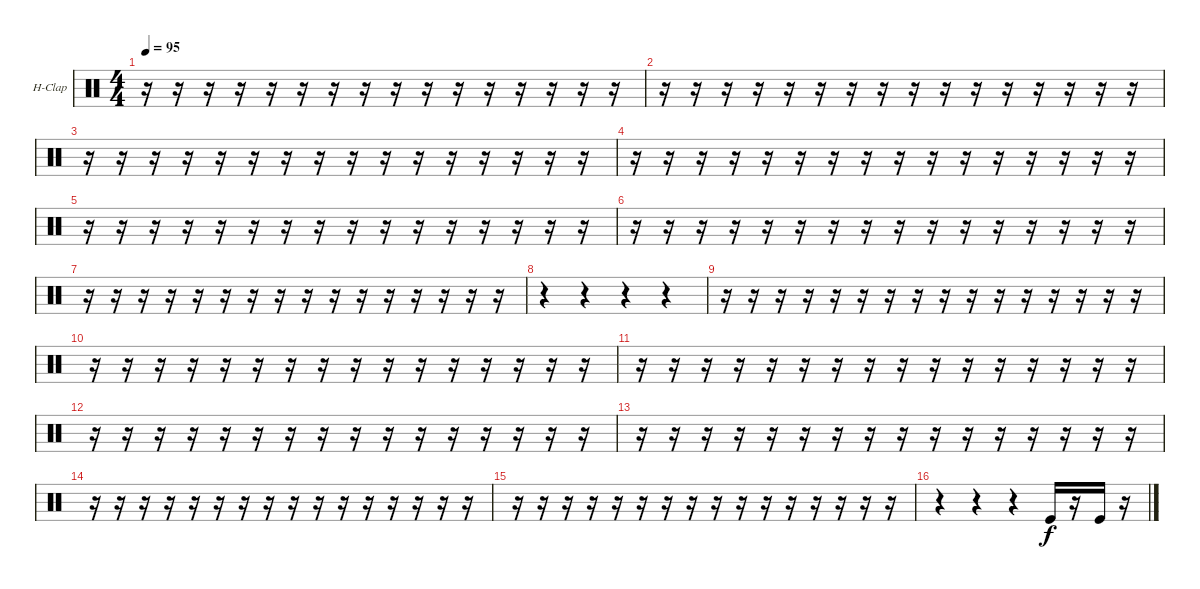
\bracketExtendMode groupsimilarinstruments
\firstSystemTrackNameOrientation horizontal
\otherSystemsTrackNameOrientation horizontal
\track ("Hand Clap" "H-Clap") {instrument percussion}
\staff {score}
\articulation defaults
\ts (4 4)
\tempo 95
\clef neutral
\ks c
r.16{dy f} r.16 r.16 r.16 r.16 r.16 r.16 r.16 r.16 r.16 r.16 r.16 r.16 r.16 r.16 r.16 |
r.16 r.16 r.16 r.16 r.16 r.16 r.16 r.16 r.16 r.16 r.16 r.16 r.16 r.16 r.16 r.16 |
r.16 r.16 r.16 r.16 r.16 r.16 r.16 r.16 r.16 r.16 r.16 r.16 r.16 r.16 r.16 r.16 |
r.16 r.16 r.16 r.16 r.16 r.16 r.16 r.16 r.16 r.16 r.16 r.16 r.16 r.16 r.16 r.16 |
r.16 r.16 r.16 r.16 r.16 r.16 r.16 r.16 r.16 r.16 r.16 r.16 r.16 r.16 r.16 r.16 |
r.16 r.16 r.16 r.16 r.16 r.16 r.16 r.16 r.16 r.16 r.16 r.16 r.16 r.16 r.16 r.16 |
r.16 r.16 r.16 r.16 r.16 r.16 r.16 r.16 r.16 r.16 r.16 r.16 r.16 r.16 r.16 r.16 |
r.4 r.4 r.4 r.4 |
r.16 r.16 r.16 r.16 r.16 r.16 r.16 r.16 r.16 r.16 r.16 r.16 r.16 r.16 r.16 r.16 |
r.16 r.16 r.16 r.16 r.16 r.16 r.16 r.16 r.16 r.16 r.16 r.16 r.16 r.16 r.16 r.16 |
r.16 r.16 r.16 r.16 r.16 r.16 r.16 r.16 r.16 r.16 r.16 r.16 r.16 r.16 r.16 r.16 |
r.16 r.16 r.16 r.16 r.16 r.16 r.16 r.16 r.16 r.16 r.16 r.16 r.16 r.16 r.16 r.16 |
r.16 r.16 r.16 r.16 r.16 r.16 r.16 r.16 r.16 r.16 r.16 r.16 r.16 r.16 r.16 r.16 |
r.16 r.16 r.16 r.16 r.16 r.16 r.16 r.16 r.16 r.16 r.16 r.16 r.16 r.16 r.16 r.16 |
r.16 r.16 r.16 r.16 r.16 r.16 r.16 r.16 r.16 r.16 r.16 r.16 r.16 r.16 r.16 r.16 |
r.4 r.4 r.4 "Kick (hit)".16 r.16 "Kick (hit)".16 r.16
